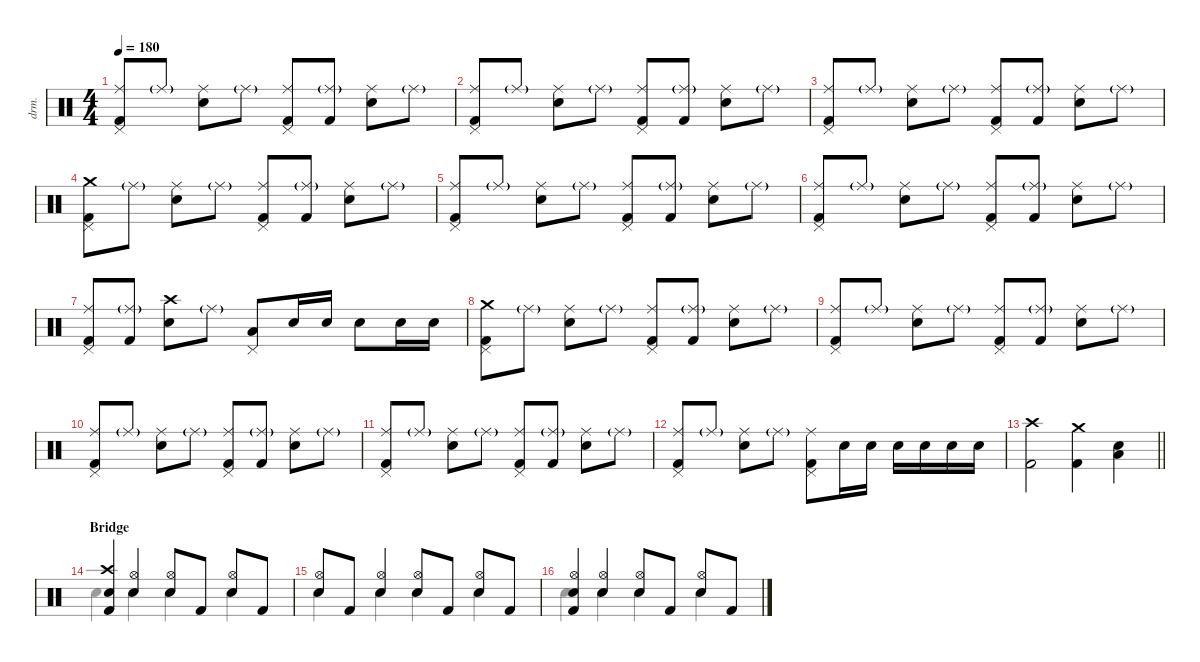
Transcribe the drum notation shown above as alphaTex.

\defaultSystemsLayout 4
\hideDynamics
\bracketExtendMode nobrackets
\otherSystemsTrackNameOrientation horizontal
\track ("Drums: Ritsu Tainaka" "drm.") {instrument percussion}
\staff {score}
\articulation defaults
\voice
\ts (4 4)
\tempo 180
\clef neutral
\ks c
("Ride (middle)" "Pedal Hi-Hat (hit)" "Kick (hit) 2").8{dy f beam Up} "Ride (middle)"{g}.8{dy mf beam Up} ("Ride (middle)" "Snare (hit) 2").8{dy f beam Down} "Ride (middle)"{g}.8{dy mf beam Down} ("Ride (middle)" "Pedal Hi-Hat (hit)" "Kick (hit) 2").8{dy f beam Up} ("Ride (middle)"{g} "Kick (hit) 2").8{beam Up} ("Ride (middle)" "Snare (hit) 2").8{beam Down} "Ride (middle)"{g}.8{dy mf beam Down} |
("Ride (middle)" "Pedal Hi-Hat (hit)" "Kick (hit) 2").8{dy f beam Up} "Ride (middle)"{g}.8{dy mf beam Up} ("Ride (middle)" "Snare (hit) 2").8{dy f beam Down} "Ride (middle)"{g}.8{dy mf beam Down} ("Ride (middle)" "Pedal Hi-Hat (hit)" "Kick (hit) 2").8{dy f beam Up} ("Ride (middle)"{g} "Kick (hit) 2").8{beam Up} ("Ride (middle)" "Snare (hit) 2").8{beam Down} "Ride (middle)"{g}.8{dy mf beam Down} |
("Ride (middle)" "Pedal Hi-Hat (hit)" "Kick (hit) 2").8{dy f beam Up} "Ride (middle)"{g}.8{dy mf beam Up} ("Ride (middle)" "Snare (hit) 2").8{dy f beam Down} "Ride (middle)"{g}.8{dy mf beam Down} ("Ride (middle)" "Pedal Hi-Hat (hit)" "Kick (hit) 2").8{dy f beam Up} ("Ride (middle)"{g} "Kick (hit) 2").8{beam Up} ("Ride (middle)" "Snare (hit) 2").8{beam Down} "Ride (middle)"{g}.8{dy mf beam Down} |
("Crash medium (hit)" "Pedal Hi-Hat (hit)" "Kick (hit) 2").8{dy f beam Down} "Ride (middle)"{g}.8{dy mf beam Down} ("Ride (middle)" "Snare (hit) 2").8{dy f beam Down} "Ride (middle)"{g}.8{dy mf beam Down} ("Ride (middle)" "Pedal Hi-Hat (hit)" "Kick (hit) 2").8{dy f beam Up} ("Ride (middle)"{g} "Kick (hit) 2").8{beam Up} ("Ride (middle)" "Snare (hit) 2").8{beam Down} "Ride (middle)"{g}.8{dy mf beam Down} |
("Ride (middle)" "Pedal Hi-Hat (hit)" "Kick (hit) 2").8{dy f beam Up} "Ride (middle)"{g}.8{dy mf beam Up} ("Ride (middle)" "Snare (hit) 2").8{dy f beam Down} "Ride (middle)"{g}.8{dy mf beam Down} ("Ride (middle)" "Pedal Hi-Hat (hit)" "Kick (hit) 2").8{dy f beam Up} ("Ride (middle)"{g} "Kick (hit) 2").8{beam Up} ("Ride (middle)" "Snare (hit) 2").8{beam Down} "Ride (middle)"{g}.8{dy mf beam Down} |
("Ride (middle)" "Pedal Hi-Hat (hit)" "Kick (hit) 2").8{dy f beam Up} "Ride (middle)"{g}.8{dy mf beam Up} ("Ride (middle)" "Snare (hit) 2").8{dy f beam Down} "Ride (middle)"{g}.8{dy mf beam Down} ("Ride (middle)" "Pedal Hi-Hat (hit)" "Kick (hit) 2").8{dy f beam Up} ("Ride (middle)"{g} "Kick (hit) 2").8{beam Up} ("Ride (middle)" "Snare (hit) 2").8{beam Down} "Ride (middle)"{g}.8{dy mf beam Down} |
("Ride (middle)" "Pedal Hi-Hat (hit)" "Kick (hit) 2").8{dy f beam Up} ("Ride (middle)"{g} "Kick (hit) 2").8{beam Up} ("Crash high (hit)" "Snare (hit) 2").8{beam Down} "Ride (middle)"{g}.8{dy mf beam Down} ("Pedal Hi-Hat (hit)" "Low Tom (hit)").8{dy f beam Up} "Snare (hit) 2".16{beam Up} "Snare (hit) 2".16{beam Up} "Snare (hit) 2".8{beam Down} "Snare (hit) 2".16{beam Down} "Snare (hit) 2".16{beam Down} |
("Crash medium (hit)" "Pedal Hi-Hat (hit)" "Kick (hit) 2").8{beam Down} "Ride (middle)"{g}.8{dy mf beam Down} ("Ride (middle)" "Snare (hit) 2").8{dy f beam Down} "Ride (middle)"{g}.8{dy mf beam Down} ("Ride (middle)" "Pedal Hi-Hat (hit)" "Kick (hit) 2").8{dy f beam Up} ("Ride (middle)"{g} "Kick (hit) 2").8{beam Up} ("Ride (middle)" "Snare (hit) 2").8{beam Down} "Ride (middle)"{g}.8{dy mf beam Down} |
("Ride (middle)" "Pedal Hi-Hat (hit)" "Kick (hit) 2").8{dy f beam Up} "Ride (middle)"{g}.8{dy mf beam Up} ("Ride (middle)" "Snare (hit) 2").8{dy f beam Down} "Ride (middle)"{g}.8{dy mf beam Down} ("Ride (middle)" "Pedal Hi-Hat (hit)" "Kick (hit) 2").8{dy f beam Up} ("Ride (middle)"{g} "Kick (hit) 2").8{beam Up} ("Ride (middle)" "Snare (hit) 2").8{beam Down} "Ride (middle)"{g}.8{dy mf beam Down} |
("Ride (middle)" "Pedal Hi-Hat (hit)" "Kick (hit) 2").8{dy f beam Up} "Ride (middle)"{g}.8{dy mf beam Up} ("Ride (middle)" "Snare (hit) 2").8{dy f beam Down} "Ride (middle)"{g}.8{dy mf beam Down} ("Ride (middle)" "Pedal Hi-Hat (hit)" "Kick (hit) 2").8{dy f beam Up} ("Ride (middle)"{g} "Kick (hit) 2").8{beam Up} ("Ride (middle)" "Snare (hit) 2").8{beam Down} "Ride (middle)"{g}.8{dy mf beam Down} |
("Ride (middle)" "Pedal Hi-Hat (hit)" "Kick (hit) 2").8{dy f beam Up} "Ride (middle)"{g}.8{dy mf beam Up} ("Ride (middle)" "Snare (hit) 2").8{dy f beam Down} "Ride (middle)"{g}.8{dy mf beam Down} ("Ride (middle)" "Pedal Hi-Hat (hit)" "Kick (hit) 2").8{dy f beam Up} ("Ride (middle)"{g} "Kick (hit) 2").8{beam Up} ("Ride (middle)" "Snare (hit) 2").8{beam Down} "Ride (middle)"{g}.8{dy mf beam Down} |
("Ride (middle)" "Pedal Hi-Hat (hit)" "Kick (hit) 2").8{dy f beam Up} "Ride (middle)"{g}.8{dy mf beam Up} ("Ride (middle)" "Snare (hit) 2").8{dy f beam Down} "Ride (middle)"{g}.8{dy mf beam Down} ("Ride (middle)" "Pedal Hi-Hat (hit)" "Kick (hit) 2").8{dy f beam Down} "Snare (hit) 2".16{beam Down} "Snare (hit) 2".16{beam Down} "Snare (hit) 2".16{beam Down} "Snare (hit) 2".16{beam Down} "Snare (hit) 2".16{beam Down} "Snare (hit) 2".16{beam Down} |
\barLineRight lightlight
("Crash high (hit)" "Kick (hit) 2").2{beam Down} ("Crash medium (hit)" "Kick (hit) 2").4{beam Down} ("Snare (hit) 2" "Low Floor Tom (hit)").4{beam Down} |
\section ("" "Bridge")
("Crash high (hit)" "Snare (hit) 2" "Kick (hit) 2").4{beam Up} ("Hi-Hat (open)" "Snare (hit) 2").4{beam Up} ("Hi-Hat (open)" "Snare (hit) 2").8{beam Up} "Kick (hit) 2".8{beam Up} ("Hi-Hat (open)" "Snare (hit) 2").8{beam Up} "Kick (hit) 2".8{beam Up} |
("Hi-Hat (open)" "Snare (hit) 2").8{beam Up} "Kick (hit) 2".8{beam Up} ("Hi-Hat (open)" "Snare (hit) 2").4{beam Up} ("Hi-Hat (open)" "Snare (hit) 2").8{beam Up} "Kick (hit) 2".8{beam Up} ("Hi-Hat (open)" "Snare (hit) 2").8{beam Up} "Kick (hit) 2".8{beam Up} |
("Hi-Hat (open)" "Snare (hit) 2" "Kick (hit) 2").4{beam Up} ("Hi-Hat (open)" "Snare (hit) 2").4{beam Up} ("Hi-Hat (open)" "Snare (hit) 2").8{beam Up} "Kick (hit) 2".8{beam Up} ("Hi-Hat (open)" "Snare (hit) 2").8{beam Up} "Kick (hit) 2".8{beam Up}
\voice
\clef neutral
\ottava regular
\simile none
\ks c
|
|
|
|
|
|
|
|
|
|
|
|
\barLineRight lightlight
|
"Hand Clap (hit)".4{beam Down} "Hand Clap (hit)".4{beam Down} "Hand Clap (hit)".4{beam Down} "Hand Clap (hit)".4{beam Down} |
"Hand Clap (hit)".4{beam Down} "Hand Clap (hit)".4{beam Down} "Hand Clap (hit)".4{beam Down} "Hand Clap (hit)".4{beam Down} |
"Hand Clap (hit)".4{beam Down} "Hand Clap (hit)".4{beam Down} "Hand Clap (hit)".4{beam Down} "Hand Clap (hit)".4{beam Down}
